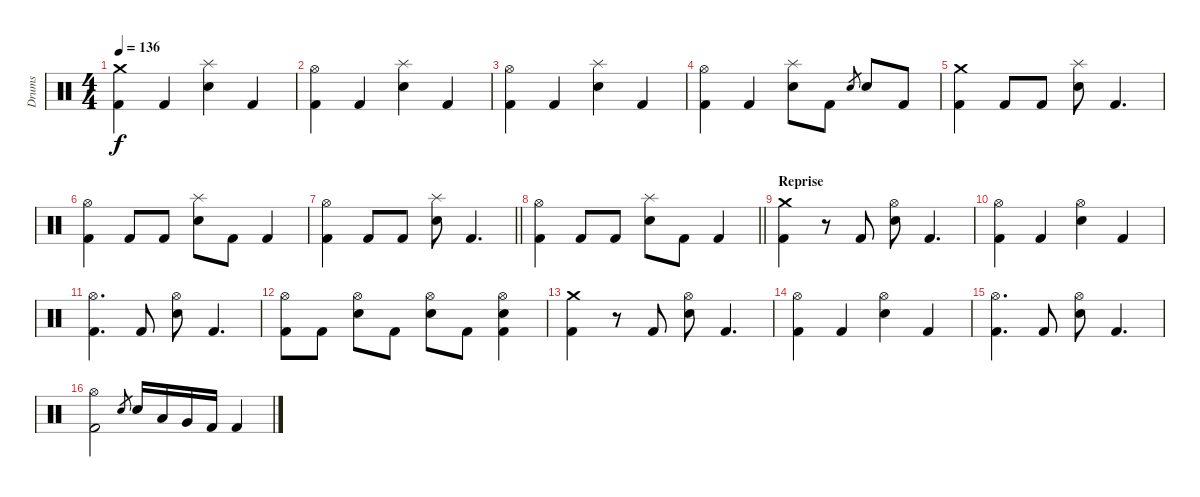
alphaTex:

\track ("Drums" "Drums") {instrument percussion}
\staff {score}
\articulation defaults
\ts (4 4)
\tempo 136
\clef neutral
\ks c
("Crash medium (hit)" "Kick (hit) 2").4{dy f} "Kick (hit) 2".4 ("Splash (hit)" "Snare (hit) 2").4 "Kick (hit) 2".4 |
("Hi-Hat (open)" "Kick (hit) 2").4 "Kick (hit) 2".4 ("Splash (hit)" "Snare (hit) 2").4 "Kick (hit) 2".4 |
("Hi-Hat (open)" "Kick (hit) 2").4 "Kick (hit) 2".4 ("Splash (hit)" "Snare (hit) 2").4 "Kick (hit) 2".4 |
("Hi-Hat (open)" "Kick (hit) 2").4 "Kick (hit) 2".4 ("Splash (hit)" "Snare (hit) 2").8 "Kick (hit) 2".8 "Snare (hit) 2".8{gr} "Snare (hit) 2".8 "Kick (hit) 2".8 |
("Crash medium (hit)" "Kick (hit) 2").4 "Kick (hit) 2".8 "Kick (hit) 2".8 ("Splash (hit)" "Snare (hit) 2").8 "Kick (hit) 2".4{d} |
("Hi-Hat (open)" "Kick (hit) 2").4 "Kick (hit) 2".8 "Kick (hit) 2".8 ("Splash (hit)" "Snare (hit) 2").8 "Kick (hit) 2".8 "Kick (hit) 2".4 |
\barLineRight lightlight
("Hi-Hat (open)" "Kick (hit) 2").4 "Kick (hit) 2".8 "Kick (hit) 2".8 ("Splash (hit)" "Snare (hit) 2").8 "Kick (hit) 2".4{d} |
\barLineRight lightlight
("Hi-Hat (open)" "Kick (hit) 2").4 "Kick (hit) 2".8 "Kick (hit) 2".8 ("Splash (hit)" "Snare (hit) 2").8 "Kick (hit) 2".8 "Kick (hit) 2".4 |
\section ("" "Reprise")
("Crash medium (hit)" "Kick (hit) 2").4 r.8 "Kick (hit) 2".8 ("Hi-Hat (open)" "Snare (hit) 2").8 "Kick (hit) 2".4{d} |
("Hi-Hat (open)" "Kick (hit) 2").4 "Kick (hit) 2".4 ("Hi-Hat (open)" "Snare (hit) 2").4 "Kick (hit) 2".4 |
("Hi-Hat (open)" "Kick (hit) 2").4{d} "Kick (hit) 2".8 ("Hi-Hat (open)" "Snare (hit) 2").8 "Kick (hit) 2".4{d} |
("Hi-Hat (open)" "Kick (hit) 2").8 "Kick (hit) 2".8 ("Hi-Hat (open)" "Snare (hit) 2").8 "Kick (hit) 2".8 ("Hi-Hat (open)" "Snare (hit) 2").8 "Kick (hit) 2".8 ("Hi-Hat (open)" "Snare (hit) 2" "Kick (hit) 2").4 |
("Crash medium (hit)" "Kick (hit) 2").4 r.8 "Kick (hit) 2".8 ("Hi-Hat (open)" "Snare (hit) 2").8 "Kick (hit) 2".4{d} |
("Hi-Hat (open)" "Kick (hit) 2").4 "Kick (hit) 2".4 ("Hi-Hat (open)" "Snare (hit) 2").4 "Kick (hit) 2".4 |
("Hi-Hat (open)" "Kick (hit) 2").4{d} "Kick (hit) 2".8 ("Hi-Hat (open)" "Snare (hit) 2").8 "Kick (hit) 2".4{d} |
("Hi-Hat (open)" "Kick (hit) 2").2 "Snare (hit) 2".8{gr} "Snare (hit) 2".16 "Low Tom (hit)".16 "Very Low Tom (hit)".16 "Kick (hit) 2".16 "Kick (hit) 2".4
